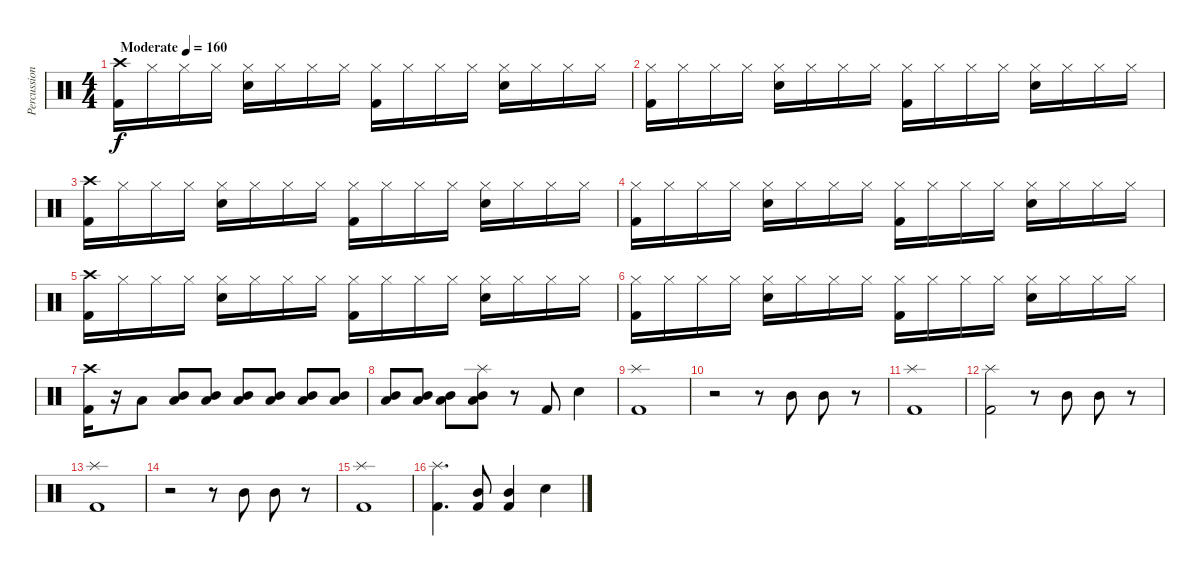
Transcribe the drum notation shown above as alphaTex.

\track ("Percussion" "Percussion") {instrument percussion}
\staff {score}
\articulation defaults
\ts (4 4)
\tempo (160 "Moderate")
\clef neutral
\ks c
("Crash high (hit)" "Kick (hit) 2").16{dy f} "Hi-Hat (closed)".16 "Hi-Hat (closed)".16 "Hi-Hat (closed)".16 ("Hi-Hat (closed)" "Snare (hit) 2").16 "Hi-Hat (closed)".16 "Hi-Hat (closed)".16 "Hi-Hat (closed)".16 ("Hi-Hat (closed)" "Kick (hit) 2").16 "Hi-Hat (closed)".16 "Hi-Hat (closed)".16 "Hi-Hat (closed)".16 ("Hi-Hat (closed)" "Snare (hit) 2").16 "Hi-Hat (closed)".16 "Hi-Hat (closed)".16 "Hi-Hat (closed)".16 |
("Hi-Hat (closed)" "Kick (hit) 2").16 "Hi-Hat (closed)".16 "Hi-Hat (closed)".16 "Hi-Hat (closed)".16 ("Hi-Hat (closed)" "Snare (hit) 2").16 "Hi-Hat (closed)".16 "Hi-Hat (closed)".16 "Hi-Hat (closed)".16 ("Hi-Hat (closed)" "Kick (hit) 2").16 "Hi-Hat (closed)".16 "Hi-Hat (closed)".16 "Hi-Hat (closed)".16 ("Hi-Hat (closed)" "Snare (hit) 2").16 "Hi-Hat (closed)".16 "Hi-Hat (closed)".16 "Hi-Hat (closed)".16 |
("Crash high (hit)" "Kick (hit) 2").16 "Hi-Hat (closed)".16 "Hi-Hat (closed)".16 "Hi-Hat (closed)".16 ("Hi-Hat (closed)" "Snare (hit) 2").16 "Hi-Hat (closed)".16 "Hi-Hat (closed)".16 "Hi-Hat (closed)".16 ("Hi-Hat (closed)" "Kick (hit) 2").16 "Hi-Hat (closed)".16 "Hi-Hat (closed)".16 "Hi-Hat (closed)".16 ("Hi-Hat (closed)" "Snare (hit) 2").16 "Hi-Hat (closed)".16 "Hi-Hat (closed)".16 "Hi-Hat (closed)".16 |
("Hi-Hat (closed)" "Kick (hit) 2").16 "Hi-Hat (closed)".16 "Hi-Hat (closed)".16 "Hi-Hat (closed)".16 ("Hi-Hat (closed)" "Snare (hit) 2").16 "Hi-Hat (closed)".16 "Hi-Hat (closed)".16 "Hi-Hat (closed)".16 ("Hi-Hat (closed)" "Kick (hit) 2").16 "Hi-Hat (closed)".16 "Hi-Hat (closed)".16 "Hi-Hat (closed)".16 ("Hi-Hat (closed)" "Snare (hit) 2").16 "Hi-Hat (closed)".16 "Hi-Hat (closed)".16 "Hi-Hat (closed)".16 |
("Crash high (hit)" "Kick (hit) 2").16 "Hi-Hat (closed)".16 "Hi-Hat (closed)".16 "Hi-Hat (closed)".16 ("Hi-Hat (closed)" "Snare (hit) 2").16 "Hi-Hat (closed)".16 "Hi-Hat (closed)".16 "Hi-Hat (closed)".16 ("Hi-Hat (closed)" "Kick (hit) 2").16 "Hi-Hat (closed)".16 "Hi-Hat (closed)".16 "Hi-Hat (closed)".16 ("Hi-Hat (closed)" "Snare (hit) 2").16 "Hi-Hat (closed)".16 "Hi-Hat (closed)".16 "Hi-Hat (closed)".16 |
("Hi-Hat (closed)" "Kick (hit) 2").16 "Hi-Hat (closed)".16 "Hi-Hat (closed)".16 "Hi-Hat (closed)".16 ("Hi-Hat (closed)" "Snare (hit) 2").16 "Hi-Hat (closed)".16 "Hi-Hat (closed)".16 "Hi-Hat (closed)".16 ("Hi-Hat (closed)" "Kick (hit) 2").16 "Hi-Hat (closed)".16 "Hi-Hat (closed)".16 "Hi-Hat (closed)".16 ("Hi-Hat (closed)" "Snare (hit) 2").16 "Hi-Hat (closed)".16 "Hi-Hat (closed)".16 "Hi-Hat (closed)".16 |
("Crash high (hit)" "Kick (hit) 2").16 r.16 "Low Tom (hit)".8 ("Mid Tom (hit)" "Low Tom (hit)").8 ("Mid Tom (hit)" "Low Tom (hit)").8 ("Mid Tom (hit)" "Low Tom (hit)").8 ("Mid Tom (hit)" "Low Tom (hit)").8 ("Mid Tom (hit)" "Low Tom (hit)").8 ("Mid Tom (hit)" "Low Tom (hit)").8 |
("Mid Tom (hit)" "Low Tom (hit)").8 ("Mid Tom (hit)" "Low Tom (hit)").8 ("Mid Tom (hit)" "Low Tom (hit)").8 ("Splash (hit)" "Mid Tom (hit)" "Low Tom (hit)").8 r.8 "Kick (hit) 2".8 "Snare (hit) 2".4 |
("Splash (hit)" "Kick (hit) 2").1 |
r.2 r.8 "Mid Tom (hit)".8 "Mid Tom (hit)".8 r.8 |
("Splash (hit)" "Kick (hit) 2").1 |
("Splash (hit)" "Kick (hit) 2").2 r.8 "Mid Tom (hit)".8 "Mid Tom (hit)".8 r.8 |
("Splash (hit)" "Kick (hit) 2").1 |
r.2 r.8 "Mid Tom (hit)".8 "Mid Tom (hit)".8 r.8 |
("Splash (hit)" "Kick (hit) 2").1 |
("Splash (hit)" "Kick (hit) 2").4{d} ("Mid Tom (hit)" "Kick (hit) 2").8 ("Mid Tom (hit)" "Kick (hit) 2").4 "Snare (hit) 2".4
